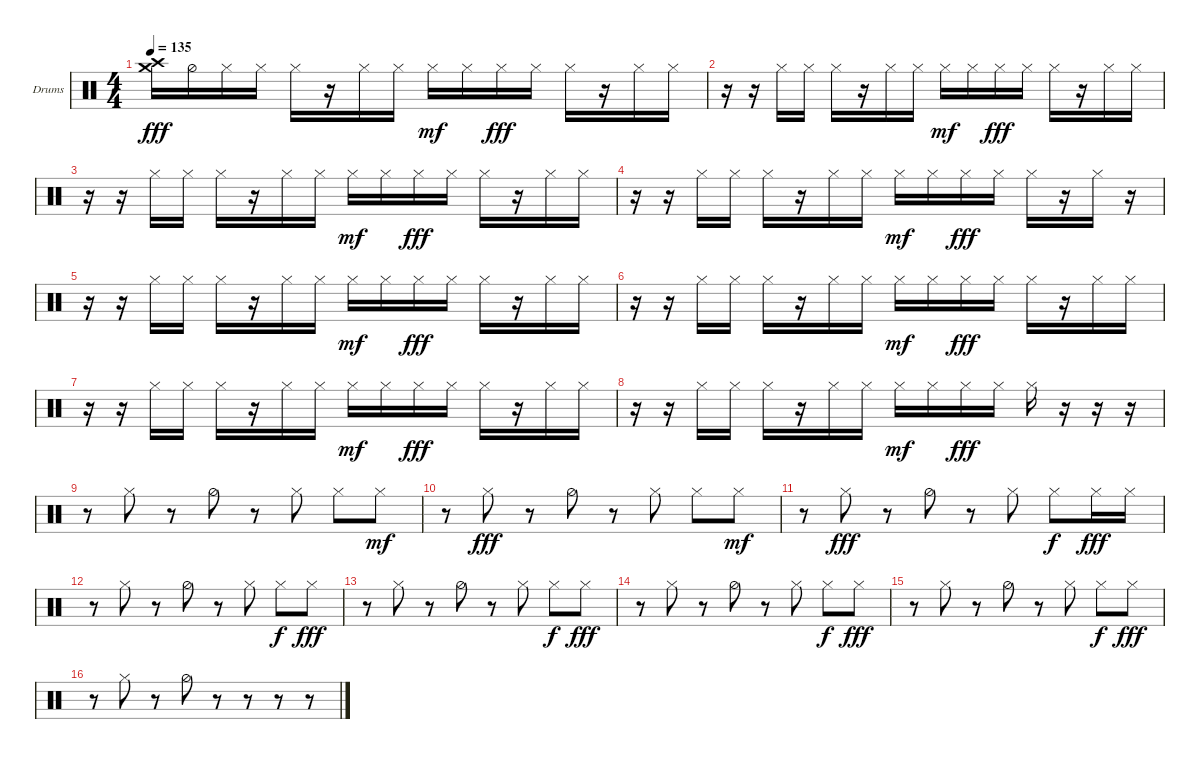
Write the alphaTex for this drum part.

\defaultSystemsLayout 4
\bracketExtendMode groupsimilarinstruments
\firstSystemTrackNameOrientation horizontal
\otherSystemsTrackNameOrientation horizontal
\track ("Matt Helders" "Drums") {instrument percussion}
\staff {score}
\articulation defaults
\ts (4 4)
\tempo 135
\clef neutral
\ks c
("Crash high (hit)" "Crash medium (hit)").16{dy fff} "Hi-Hat (half)".16 "Hi-Hat (closed)".16 "Hi-Hat (closed)".16 "Hi-Hat (closed)".16 r.16 "Hi-Hat (closed)".16 "Hi-Hat (closed)".16 "Hi-Hat (closed)".16{dy mf} "Hi-Hat (closed)".16 "Hi-Hat (closed)".16{dy fff} "Hi-Hat (closed)".16 "Hi-Hat (closed)".16 r.16 "Hi-Hat (closed)".16 "Hi-Hat (closed)".16 |
r.16 r.16 "Hi-Hat (closed)".16 "Hi-Hat (closed)".16 "Hi-Hat (closed)".16 r.16 "Hi-Hat (closed)".16 "Hi-Hat (closed)".16 "Hi-Hat (closed)".16{dy mf} "Hi-Hat (closed)".16 "Hi-Hat (closed)".16{dy fff} "Hi-Hat (closed)".16 "Hi-Hat (closed)".16 r.16 "Hi-Hat (closed)".16 "Hi-Hat (closed)".16 |
r.16 r.16 "Hi-Hat (closed)".16 "Hi-Hat (closed)".16 "Hi-Hat (closed)".16 r.16 "Hi-Hat (closed)".16 "Hi-Hat (closed)".16 "Hi-Hat (closed)".16{dy mf} "Hi-Hat (closed)".16 "Hi-Hat (closed)".16{dy fff} "Hi-Hat (closed)".16 "Hi-Hat (closed)".16 r.16 "Hi-Hat (closed)".16 "Hi-Hat (closed)".16 |
r.16 r.16 "Hi-Hat (closed)".16 "Hi-Hat (closed)".16 "Hi-Hat (closed)".16 r.16 "Hi-Hat (closed)".16 "Hi-Hat (closed)".16 "Hi-Hat (closed)".16{dy mf} "Hi-Hat (closed)".16 "Hi-Hat (closed)".16{dy fff} "Hi-Hat (closed)".16 "Hi-Hat (closed)".16 r.16 "Hi-Hat (closed)".16 r.16 |
r.16 r.16 "Hi-Hat (closed)".16 "Hi-Hat (closed)".16 "Hi-Hat (closed)".16 r.16 "Hi-Hat (closed)".16 "Hi-Hat (closed)".16 "Hi-Hat (closed)".16{dy mf} "Hi-Hat (closed)".16 "Hi-Hat (closed)".16{dy fff} "Hi-Hat (closed)".16 "Hi-Hat (closed)".16 r.16 "Hi-Hat (closed)".16 "Hi-Hat (closed)".16 |
r.16 r.16 "Hi-Hat (closed)".16 "Hi-Hat (closed)".16 "Hi-Hat (closed)".16 r.16 "Hi-Hat (closed)".16 "Hi-Hat (closed)".16 "Hi-Hat (closed)".16{dy mf} "Hi-Hat (closed)".16 "Hi-Hat (closed)".16{dy fff} "Hi-Hat (closed)".16 "Hi-Hat (closed)".16 r.16 "Hi-Hat (closed)".16 "Hi-Hat (closed)".16 |
r.16 r.16 "Hi-Hat (closed)".16 "Hi-Hat (closed)".16 "Hi-Hat (closed)".16 r.16 "Hi-Hat (closed)".16 "Hi-Hat (closed)".16 "Hi-Hat (closed)".16{dy mf} "Hi-Hat (closed)".16 "Hi-Hat (closed)".16{dy fff} "Hi-Hat (closed)".16 "Hi-Hat (closed)".16 r.16 "Hi-Hat (closed)".16 "Hi-Hat (closed)".16 |
r.16 r.16 "Hi-Hat (closed)".16 "Hi-Hat (closed)".16 "Hi-Hat (closed)".16 r.16 "Hi-Hat (closed)".16 "Hi-Hat (closed)".16 "Hi-Hat (closed)".16{dy mf} "Hi-Hat (closed)".16 "Hi-Hat (closed)".16{dy fff} "Hi-Hat (closed)".16 "Hi-Hat (closed)".16 r.16 r.16 r.16 |
r.8 "Hi-Hat (closed)".8 r.8 "Hi-Hat (half)".8 r.8 "Hi-Hat (closed)".8 "Hi-Hat (closed)".8 "Hi-Hat (closed)".8{dy mf} |
r.8 "Hi-Hat (closed)".8{dy fff} r.8 "Hi-Hat (half)".8 r.8 "Hi-Hat (closed)".8 "Hi-Hat (closed)".8 "Hi-Hat (closed)".8{dy mf} |
r.8 "Hi-Hat (closed)".8{dy fff} r.8 "Hi-Hat (half)".8 r.8 "Hi-Hat (closed)".8 "Hi-Hat (closed)".8{dy f} "Hi-Hat (closed)".16{dy fff} "Hi-Hat (closed)".16 |
r.8 "Hi-Hat (closed)".8 r.8 "Hi-Hat (half)".8 r.8 "Hi-Hat (closed)".8 "Hi-Hat (closed)".8{dy f} "Hi-Hat (closed)".8{dy fff} |
r.8 "Hi-Hat (closed)".8 r.8 "Hi-Hat (half)".8 r.8 "Hi-Hat (closed)".8 "Hi-Hat (closed)".8{dy f} "Hi-Hat (closed)".8{dy fff} |
r.8 "Hi-Hat (closed)".8 r.8 "Hi-Hat (half)".8 r.8 "Hi-Hat (closed)".8 "Hi-Hat (closed)".8{dy f} "Hi-Hat (closed)".8{dy fff} |
r.8 "Hi-Hat (closed)".8 r.8 "Hi-Hat (half)".8 r.8 "Hi-Hat (closed)".8 "Hi-Hat (closed)".8{dy f} "Hi-Hat (closed)".8{dy fff} |
r.8 "Hi-Hat (closed)".8 r.8 "Hi-Hat (half)".8 r.8 r.8 r.8 r.8
